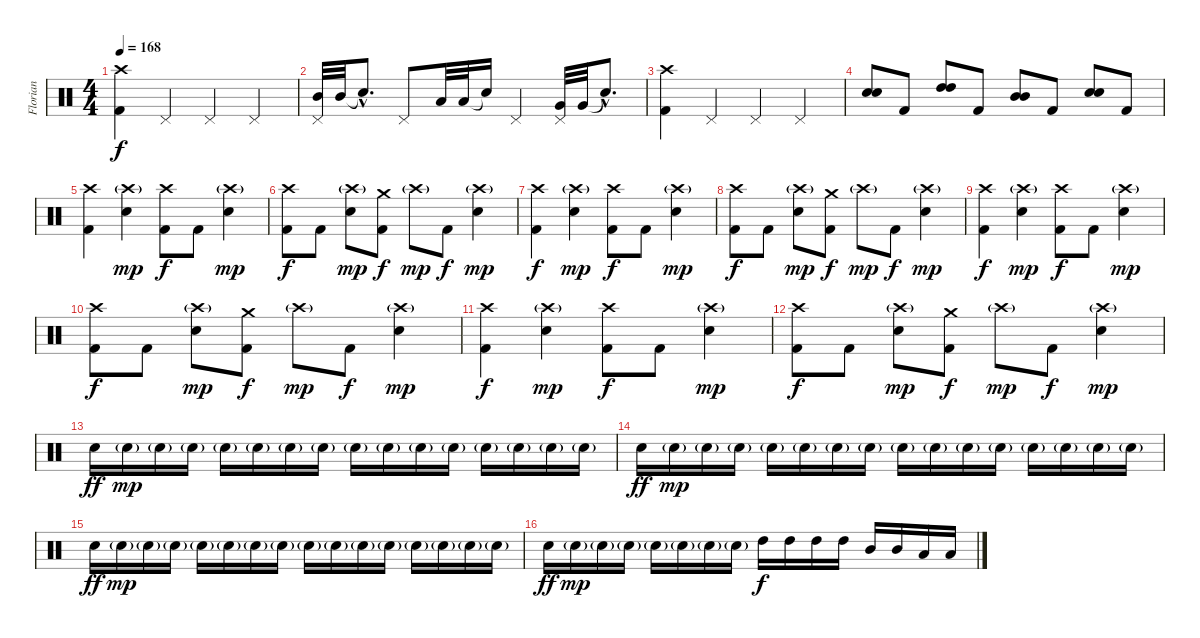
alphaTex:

\track ("Florian" "Florian") {instrument percussion}
\staff {score}
\articulation defaults
\ts (4 4)
\tempo 168
\clef neutral
\ks c
("Crash high (hit)" "Kick (hit) 2").4{dy f} "Pedal Hi-Hat (hit)".4 "Pedal Hi-Hat (hit)".4 "Pedal Hi-Hat (hit)".4 |
("Pedal Hi-Hat (hit)" "Mid Tom (hit)").32 "Mid Tom (hit)".32 "Snare (hit)"{hac t}.8{d} "Pedal Hi-Hat (hit)".8 "Low Tom (hit)".32 "Low Tom (hit)".32 "Snare (hit)"{t}.16 "Pedal Hi-Hat (hit)".4 ("Pedal Hi-Hat (hit)" "Very Low Tom (hit)").32 "Very Low Tom (hit)".32 "Snare (hit)"{hac t}.8{d} |
("Crash high (hit)" "Kick (hit) 2").4 "Pedal Hi-Hat (hit)".4 "Pedal Hi-Hat (hit)".4 "Pedal Hi-Hat (hit)".4 |
("Snare (hit) 2" "Snare (hit) 2").8{bd 240} "Kick (hit) 2".8 ("High Tom (hit)" "High Tom (hit)").8{bd 240} "Kick (hit) 2".8 ("Mid Tom (hit)" "Mid Tom (hit)").8{bd 240} "Kick (hit) 2".8 ("Snare (hit) 2" "Snare (hit) 2").8{bd 240} "Kick (hit) 2".8 |
("Crash high (hit)" "Kick (hit) 2").4 ("Crash high (hit)"{g} "Snare (hit) 2").4{dy mp} ("Crash high (hit)" "Kick (hit) 2").8{dy f} "Kick (hit) 2".8 ("Crash high (hit)"{g} "Snare (hit) 2").4{dy mp} |
("Crash high (hit)" "Kick (hit) 2").8{dy f} "Kick (hit) 2".8 ("Crash high (hit)"{g} "Snare (hit) 2").8{dy mp} ("Crash medium (hit)" "Kick (hit) 2").8{dy f} "Crash high (hit)"{g}.8{dy mp} "Kick (hit) 2".8{dy f} ("Crash high (hit)"{g} "Snare (hit) 2").4{dy mp} |
("Crash high (hit)" "Kick (hit) 2").4{dy f} ("Crash high (hit)"{g} "Snare (hit) 2").4{dy mp} ("Crash high (hit)" "Kick (hit) 2").8{dy f} "Kick (hit) 2".8 ("Crash high (hit)"{g} "Snare (hit) 2").4{dy mp} |
("Crash high (hit)" "Kick (hit) 2").8{dy f} "Kick (hit) 2".8 ("Crash high (hit)"{g} "Snare (hit) 2").8{dy mp} ("Crash medium (hit)" "Kick (hit) 2").8{dy f} "Crash high (hit)"{g}.8{dy mp} "Kick (hit) 2".8{dy f} ("Crash high (hit)"{g} "Snare (hit) 2").4{dy mp} |
("Crash high (hit)" "Kick (hit) 2").4{dy f} ("Crash high (hit)"{g} "Snare (hit) 2").4{dy mp} ("Crash high (hit)" "Kick (hit) 2").8{dy f} "Kick (hit) 2".8 ("Crash high (hit)"{g} "Snare (hit) 2").4{dy mp} |
("Crash high (hit)" "Kick (hit) 2").8{dy f} "Kick (hit) 2".8 ("Crash high (hit)"{g} "Snare (hit) 2").8{dy mp} ("Crash medium (hit)" "Kick (hit) 2").8{dy f} "Crash high (hit)"{g}.8{dy mp} "Kick (hit) 2".8{dy f} ("Crash high (hit)"{g} "Snare (hit) 2").4{dy mp} |
("Crash high (hit)" "Kick (hit) 2").4{dy f} ("Crash high (hit)"{g} "Snare (hit) 2").4{dy mp} ("Crash high (hit)" "Kick (hit) 2").8{dy f} "Kick (hit) 2".8 ("Crash high (hit)"{g} "Snare (hit) 2").4{dy mp} |
("Crash high (hit)" "Kick (hit) 2").8{dy f} "Kick (hit) 2".8 ("Crash high (hit)"{g} "Snare (hit) 2").8{dy mp} ("Crash medium (hit)" "Kick (hit) 2").8{dy f} "Crash high (hit)"{g}.8{dy mp} "Kick (hit) 2".8{dy f} ("Crash high (hit)"{g} "Snare (hit) 2").4{dy mp} |
"Snare (hit) 2".16{dy ff} "Snare (hit) 2"{g}.16{dy mp} "Snare (hit) 2"{g}.16 "Snare (hit) 2"{g}.16 "Snare (hit) 2"{g}.16 "Snare (hit) 2"{g}.16 "Snare (hit) 2"{g}.16 "Snare (hit) 2"{g}.16 "Snare (hit) 2"{g}.16 "Snare (hit) 2"{g}.16 "Snare (hit) 2"{g}.16 "Snare (hit) 2"{g}.16 "Snare (hit) 2"{g}.16 "Snare (hit) 2"{g}.16 "Snare (hit) 2"{g}.16 "Snare (hit) 2"{g}.16 |
"Snare (hit) 2".16{dy ff} "Snare (hit) 2"{g}.16{dy mp} "Snare (hit) 2"{g}.16 "Snare (hit) 2"{g}.16 "Snare (hit) 2"{g}.16 "Snare (hit) 2"{g}.16 "Snare (hit) 2"{g}.16 "Snare (hit) 2"{g}.16 "Snare (hit) 2"{g}.16 "Snare (hit) 2"{g}.16 "Snare (hit) 2"{g}.16 "Snare (hit) 2"{g}.16 "Snare (hit) 2"{g}.16 "Snare (hit) 2"{g}.16 "Snare (hit) 2"{g}.16 "Snare (hit) 2"{g}.16 |
"Snare (hit) 2".16{dy ff} "Snare (hit) 2"{g}.16{dy mp} "Snare (hit) 2"{g}.16 "Snare (hit) 2"{g}.16 "Snare (hit) 2"{g}.16 "Snare (hit) 2"{g}.16 "Snare (hit) 2"{g}.16 "Snare (hit) 2"{g}.16 "Snare (hit) 2"{g}.16 "Snare (hit) 2"{g}.16 "Snare (hit) 2"{g}.16 "Snare (hit) 2"{g}.16 "Snare (hit) 2"{g}.16 "Snare (hit) 2"{g}.16 "Snare (hit) 2"{g}.16 "Snare (hit) 2"{g}.16 |
"Snare (hit) 2".16{dy ff} "Snare (hit) 2"{g}.16{dy mp} "Snare (hit) 2"{g}.16 "Snare (hit) 2"{g}.16 "Snare (hit) 2"{g}.16 "Snare (hit) 2"{g}.16 "Snare (hit) 2"{g}.16 "Snare (hit) 2"{g}.16 "High Tom (hit)".16{dy f} "High Tom (hit)".16 "High Tom (hit)".16 "High Tom (hit)".16 "Mid Tom (hit)".16 "Mid Tom (hit)".16 "Low Tom (hit)".16 "Low Tom (hit)".16
